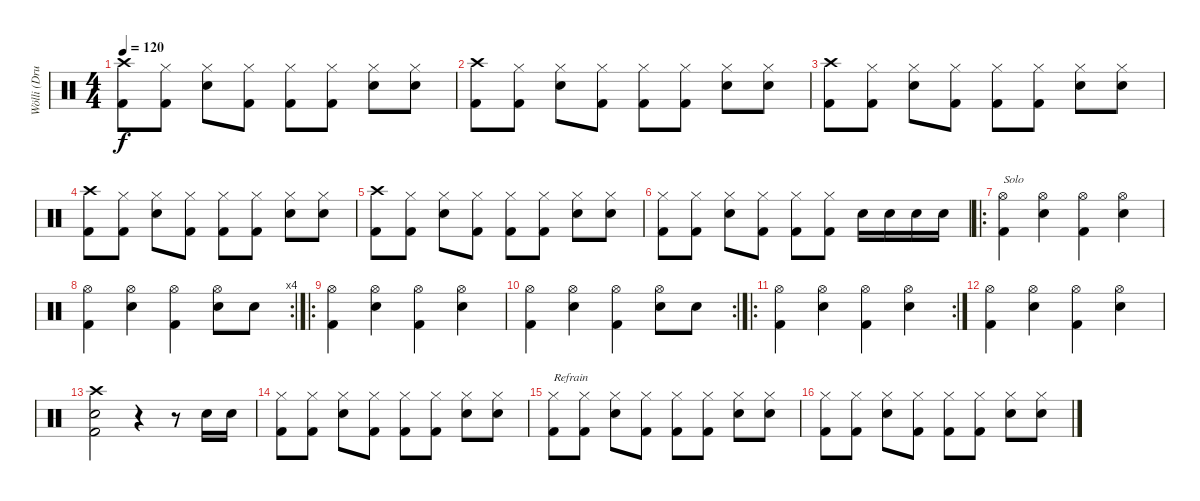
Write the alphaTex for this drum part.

\track ("Wölli (Drums)" "Wölli (Dru") {instrument percussion}
\staff {score}
\articulation defaults
\ts (4 4)
\tempo 120
\clef neutral
\ks c
("Crash high (hit)" "Kick (hit) 2").8{dy f} ("Hi-Hat (closed)" "Kick (hit) 2").8 ("Hi-Hat (closed)" "Snare (hit) 2").8 ("Hi-Hat (closed)" "Kick (hit) 2").8 ("Hi-Hat (closed)" "Kick (hit) 2").8 ("Hi-Hat (closed)" "Kick (hit) 2").8 ("Hi-Hat (closed)" "Snare (hit) 2").8 ("Hi-Hat (closed)" "Snare (hit) 2").8 |
("Crash high (hit)" "Kick (hit) 2").8 ("Hi-Hat (closed)" "Kick (hit) 2").8 ("Hi-Hat (closed)" "Snare (hit) 2").8 ("Hi-Hat (closed)" "Kick (hit) 2").8 ("Hi-Hat (closed)" "Kick (hit) 2").8 ("Hi-Hat (closed)" "Kick (hit) 2").8 ("Hi-Hat (closed)" "Snare (hit) 2").8 ("Hi-Hat (closed)" "Snare (hit) 2").8 |
("Crash high (hit)" "Kick (hit) 2").8 ("Hi-Hat (closed)" "Kick (hit) 2").8 ("Hi-Hat (closed)" "Snare (hit) 2").8 ("Hi-Hat (closed)" "Kick (hit) 2").8 ("Hi-Hat (closed)" "Kick (hit) 2").8 ("Hi-Hat (closed)" "Kick (hit) 2").8 ("Hi-Hat (closed)" "Snare (hit) 2").8 ("Hi-Hat (closed)" "Snare (hit) 2").8 |
("Crash high (hit)" "Kick (hit) 2").8 ("Hi-Hat (closed)" "Kick (hit) 2").8 ("Hi-Hat (closed)" "Snare (hit) 2").8 ("Hi-Hat (closed)" "Kick (hit) 2").8 ("Hi-Hat (closed)" "Kick (hit) 2").8 ("Hi-Hat (closed)" "Kick (hit) 2").8 ("Hi-Hat (closed)" "Snare (hit) 2").8 ("Hi-Hat (closed)" "Snare (hit) 2").8 |
("Crash high (hit)" "Kick (hit) 2").8 ("Hi-Hat (closed)" "Kick (hit) 2").8 ("Hi-Hat (closed)" "Snare (hit) 2").8 ("Hi-Hat (closed)" "Kick (hit) 2").8 ("Hi-Hat (closed)" "Kick (hit) 2").8 ("Hi-Hat (closed)" "Kick (hit) 2").8 ("Hi-Hat (closed)" "Snare (hit) 2").8 ("Hi-Hat (closed)" "Snare (hit) 2").8 |
("Hi-Hat (closed)" "Kick (hit) 2").8 ("Hi-Hat (closed)" "Kick (hit) 2").8 ("Hi-Hat (closed)" "Snare (hit) 2").8 ("Hi-Hat (closed)" "Kick (hit) 2").8 ("Hi-Hat (closed)" "Kick (hit) 2").8 ("Hi-Hat (closed)" "Kick (hit) 2").8 "Snare (hit) 2".16 "Snare (hit) 2".16 "Snare (hit) 2".16 "Snare (hit) 2".16 |
\ro
("Hi-Hat (open)" "Kick (hit) 2").4{txt "Solo"} ("Hi-Hat (open)" "Snare (hit) 2").4 ("Hi-Hat (open)" "Kick (hit) 2").4 ("Hi-Hat (open)" "Snare (hit) 2").4 |
\rc 4
("Hi-Hat (open)" "Kick (hit) 2").4 ("Hi-Hat (open)" "Snare (hit) 2").4 ("Hi-Hat (open)" "Kick (hit) 2").4 ("Hi-Hat (open)" "Snare (hit) 2").8 "Snare (hit) 2".8 |
\ro
("Hi-Hat (open)" "Kick (hit) 2").4 ("Hi-Hat (open)" "Snare (hit) 2").4 ("Hi-Hat (open)" "Kick (hit) 2").4 ("Hi-Hat (open)" "Snare (hit) 2").4 |
\rc 2
("Hi-Hat (open)" "Kick (hit) 2").4 ("Hi-Hat (open)" "Snare (hit) 2").4 ("Hi-Hat (open)" "Kick (hit) 2").4 ("Hi-Hat (open)" "Snare (hit) 2").8 "Snare (hit) 2".8 |
\ro
\rc 2
("Hi-Hat (open)" "Kick (hit) 2").4 ("Hi-Hat (open)" "Snare (hit) 2").4 ("Hi-Hat (open)" "Kick (hit) 2").4 ("Hi-Hat (open)" "Snare (hit) 2").4 |
("Hi-Hat (open)" "Kick (hit) 2").4 ("Hi-Hat (open)" "Snare (hit) 2").4 ("Hi-Hat (open)" "Kick (hit) 2").4 ("Hi-Hat (open)" "Snare (hit) 2").4 |
("Crash high (hit)" "Snare (hit) 2" "Kick (hit) 2").2 r.4 r.8 "Snare (hit) 2".16 "Snare (hit) 2".16 |
("Hi-Hat (closed)" "Kick (hit) 2").8 ("Hi-Hat (closed)" "Kick (hit) 2").8 ("Hi-Hat (closed)" "Snare (hit) 2").8 ("Hi-Hat (closed)" "Kick (hit) 2").8 ("Hi-Hat (closed)" "Kick (hit) 2").8 ("Hi-Hat (closed)" "Kick (hit) 2").8 ("Hi-Hat (closed)" "Snare (hit) 2").8 ("Hi-Hat (closed)" "Snare (hit) 2").8 |
("Hi-Hat (closed)" "Kick (hit) 2").8{txt "Refrain"} ("Hi-Hat (closed)" "Kick (hit) 2").8 ("Hi-Hat (closed)" "Snare (hit) 2").8 ("Hi-Hat (closed)" "Kick (hit) 2").8 ("Hi-Hat (closed)" "Kick (hit) 2").8 ("Hi-Hat (closed)" "Kick (hit) 2").8 ("Hi-Hat (closed)" "Snare (hit) 2").8 ("Hi-Hat (closed)" "Snare (hit) 2").8 |
("Hi-Hat (closed)" "Kick (hit) 2").8 ("Hi-Hat (closed)" "Kick (hit) 2").8 ("Hi-Hat (closed)" "Snare (hit) 2").8 ("Hi-Hat (closed)" "Kick (hit) 2").8 ("Hi-Hat (closed)" "Kick (hit) 2").8 ("Hi-Hat (closed)" "Kick (hit) 2").8 ("Hi-Hat (closed)" "Snare (hit) 2").8 ("Hi-Hat (closed)" "Snare (hit) 2").8
